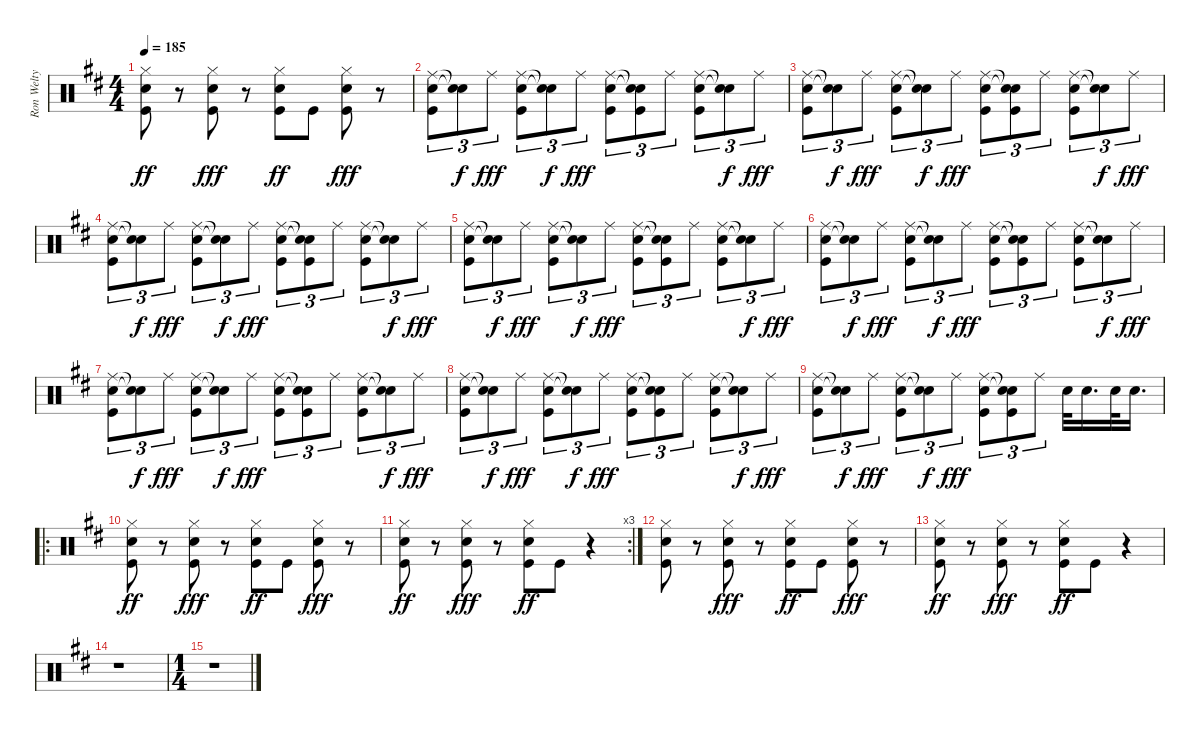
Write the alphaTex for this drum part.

\track ("Ron Welty" "Ron Welty") {instrument percussion}
\staff {score}
\articulation defaults
\ts (4 4)
\tempo 185
\clef neutral
\ks d
("Hi-Hat (closed)" "Snare (hit) 2" "Kick (hit)").8{dy ff} r.8 ("Hi-Hat (closed)" "Snare (hit) 2" "Kick (hit)").8{dy fff} r.8 ("Hi-Hat (closed)" "Snare (hit) 2" "Kick (hit)").8{dy ff} "Kick (hit)".8 ("Hi-Hat (closed)" "Snare (hit) 2" "Kick (hit)").8{dy fff} r.8 |
("Ride (middle)" "Snare (hit) 2" "Kick (hit)").8{tu (3 2)} ("Snare (hit)"{t} "Snare (hit)"{t}).8{tu (3 2) dy f} "Ride (middle)".8{tu (3 2) dy fff} ("Ride (middle)" "Snare (hit) 2" "Kick (hit)").8{tu (3 2)} ("Snare (hit)"{t} "Snare (hit)"{t}).8{tu (3 2) dy f} "Ride (middle)".8{tu (3 2) dy fff} ("Ride (middle)" "Snare (hit) 2" "Kick (hit)").8{tu (3 2)} ("Snare (hit)"{t} "Snare (hit)"{t} "Kick (hit)").8{tu (3 2)} "Ride (middle)".8{tu (3 2)} ("Ride (middle)" "Snare (hit) 2" "Kick (hit)").8{tu (3 2)} ("Snare (hit)"{t} "Snare (hit)"{t}).8{tu (3 2) dy f} "Ride (middle)".8{tu (3 2) dy fff} |
("Ride (middle)" "Snare (hit) 2" "Kick (hit)").8{tu (3 2)} ("Snare (hit)"{t} "Snare (hit)"{t}).8{tu (3 2) dy f} "Ride (middle)".8{tu (3 2) dy fff} ("Ride (middle)" "Snare (hit) 2" "Kick (hit)").8{tu (3 2)} ("Snare (hit)"{t} "Snare (hit)"{t}).8{tu (3 2) dy f} "Ride (middle)".8{tu (3 2) dy fff} ("Ride (middle)" "Snare (hit) 2" "Kick (hit)").8{tu (3 2)} ("Snare (hit)"{t} "Snare (hit)"{t} "Kick (hit)").8{tu (3 2)} "Ride (middle)".8{tu (3 2)} ("Ride (middle)" "Snare (hit) 2" "Kick (hit)").8{tu (3 2)} ("Snare (hit)"{t} "Snare (hit)"{t}).8{tu (3 2) dy f} "Ride (middle)".8{tu (3 2) dy fff} |
("Ride (middle)" "Snare (hit) 2" "Kick (hit)").8{tu (3 2)} ("Snare (hit)"{t} "Snare (hit)"{t}).8{tu (3 2) dy f} "Ride (middle)".8{tu (3 2) dy fff} ("Ride (middle)" "Snare (hit) 2" "Kick (hit)").8{tu (3 2)} ("Snare (hit)"{t} "Snare (hit)"{t}).8{tu (3 2) dy f} "Ride (middle)".8{tu (3 2) dy fff} ("Ride (middle)" "Snare (hit) 2" "Kick (hit)").8{tu (3 2)} ("Snare (hit)"{t} "Snare (hit)"{t} "Kick (hit)").8{tu (3 2)} "Ride (middle)".8{tu (3 2)} ("Ride (middle)" "Snare (hit) 2" "Kick (hit)").8{tu (3 2)} ("Snare (hit)"{t} "Snare (hit)"{t}).8{tu (3 2) dy f} "Ride (middle)".8{tu (3 2) dy fff} |
("Ride (middle)" "Snare (hit) 2" "Kick (hit)").8{tu (3 2)} ("Snare (hit)"{t} "Snare (hit)"{t}).8{tu (3 2) dy f} "Ride (middle)".8{tu (3 2) dy fff} ("Ride (middle)" "Snare (hit) 2" "Kick (hit)").8{tu (3 2)} ("Snare (hit)"{t} "Snare (hit)"{t}).8{tu (3 2) dy f} "Ride (middle)".8{tu (3 2) dy fff} ("Ride (middle)" "Snare (hit) 2" "Kick (hit)").8{tu (3 2)} ("Snare (hit)"{t} "Snare (hit)"{t} "Kick (hit)").8{tu (3 2)} "Ride (middle)".8{tu (3 2)} ("Ride (middle)" "Snare (hit) 2" "Kick (hit)").8{tu (3 2)} ("Snare (hit)"{t} "Snare (hit)"{t}).8{tu (3 2) dy f} "Ride (middle)".8{tu (3 2) dy fff} |
("Ride (middle)" "Snare (hit) 2" "Kick (hit)").8{tu (3 2)} ("Snare (hit)"{t} "Snare (hit)"{t}).8{tu (3 2) dy f} "Ride (middle)".8{tu (3 2) dy fff} ("Ride (middle)" "Snare (hit) 2" "Kick (hit)").8{tu (3 2)} ("Snare (hit)"{t} "Snare (hit)"{t}).8{tu (3 2) dy f} "Ride (middle)".8{tu (3 2) dy fff} ("Ride (middle)" "Snare (hit) 2" "Kick (hit)").8{tu (3 2)} ("Snare (hit)"{t} "Snare (hit)"{t} "Kick (hit)").8{tu (3 2)} "Ride (middle)".8{tu (3 2)} ("Ride (middle)" "Snare (hit) 2" "Kick (hit)").8{tu (3 2)} ("Snare (hit)"{t} "Snare (hit)"{t}).8{tu (3 2) dy f} "Ride (middle)".8{tu (3 2) dy fff} |
("Ride (middle)" "Snare (hit) 2" "Kick (hit)").8{tu (3 2)} ("Snare (hit)"{t} "Snare (hit)"{t}).8{tu (3 2) dy f} "Ride (middle)".8{tu (3 2) dy fff} ("Ride (middle)" "Snare (hit) 2" "Kick (hit)").8{tu (3 2)} ("Snare (hit)"{t} "Snare (hit)"{t}).8{tu (3 2) dy f} "Ride (middle)".8{tu (3 2) dy fff} ("Ride (middle)" "Snare (hit) 2" "Kick (hit)").8{tu (3 2)} ("Snare (hit)"{t} "Snare (hit)"{t} "Kick (hit)").8{tu (3 2)} "Ride (middle)".8{tu (3 2)} ("Ride (middle)" "Snare (hit) 2" "Kick (hit)").8{tu (3 2)} ("Snare (hit)"{t} "Snare (hit)"{t}).8{tu (3 2) dy f} "Ride (middle)".8{tu (3 2) dy fff} |
("Ride (middle)" "Snare (hit) 2" "Kick (hit)").8{tu (3 2)} ("Snare (hit)"{t} "Snare (hit)"{t}).8{tu (3 2) dy f} "Ride (middle)".8{tu (3 2) dy fff} ("Ride (middle)" "Snare (hit) 2" "Kick (hit)").8{tu (3 2)} ("Snare (hit)"{t} "Snare (hit)"{t}).8{tu (3 2) dy f} "Ride (middle)".8{tu (3 2) dy fff} ("Ride (middle)" "Snare (hit) 2" "Kick (hit)").8{tu (3 2)} ("Snare (hit)"{t} "Snare (hit)"{t} "Kick (hit)").8{tu (3 2)} "Ride (middle)".8{tu (3 2)} ("Ride (middle)" "Snare (hit) 2" "Kick (hit)").8{tu (3 2)} ("Snare (hit)"{t} "Snare (hit)"{t}).8{tu (3 2) dy f} "Ride (middle)".8{tu (3 2) dy fff} |
("Ride (middle)" "Snare (hit) 2" "Kick (hit)").8{tu (3 2)} ("Snare (hit)"{t} "Snare (hit)"{t}).8{tu (3 2) dy f} "Ride (middle)".8{tu (3 2) dy fff} ("Ride (middle)" "Snare (hit) 2" "Kick (hit)").8{tu (3 2)} ("Snare (hit)"{t} "Snare (hit)"{t}).8{tu (3 2) dy f} "Ride (middle)".8{tu (3 2) dy fff} ("Ride (middle)" "Snare (hit) 2" "Kick (hit)").8{tu (3 2)} ("Snare (hit)"{t} "Snare (hit)"{t} "Kick (hit)").8{tu (3 2)} "Ride (middle)".8{tu (3 2)} "Snare (hit) 2".32 "Snare (hit) 2".16{d} "Snare (hit) 2".32 "Snare (hit) 2".16{d} |
\ro
("Hi-Hat (closed)" "Snare (hit) 2" "Kick (hit)").8{dy ff} r.8 ("Hi-Hat (closed)" "Snare (hit) 2" "Kick (hit)").8{dy fff} r.8 ("Hi-Hat (closed)" "Snare (hit) 2" "Kick (hit)").8{dy ff} "Kick (hit)".8 ("Hi-Hat (closed)" "Snare (hit) 2" "Kick (hit)").8{dy fff} r.8 |
\rc 3
("Hi-Hat (closed)" "Snare (hit) 2" "Kick (hit)").8{dy ff} r.8 ("Hi-Hat (closed)" "Snare (hit) 2" "Kick (hit)").8{dy fff} r.8 ("Hi-Hat (closed)" "Snare (hit) 2" "Kick (hit)").8{dy ff} "Kick (hit)".8 r.4 |
("Hi-Hat (closed)" "Snare (hit) 2" "Kick (hit)").8 r.8 ("Hi-Hat (closed)" "Snare (hit) 2" "Kick (hit)").8{dy fff} r.8 ("Hi-Hat (closed)" "Snare (hit) 2" "Kick (hit)").8{dy ff} "Kick (hit)".8 ("Hi-Hat (closed)" "Snare (hit) 2" "Kick (hit)").8{dy fff} r.8 |
("Hi-Hat (closed)" "Snare (hit) 2" "Kick (hit)").8{dy ff} r.8 ("Hi-Hat (closed)" "Snare (hit) 2" "Kick (hit)").8{dy fff} r.8 ("Hi-Hat (closed)" "Snare (hit) 2" "Kick (hit)").8{dy ff} "Kick (hit)".8 r.4 |
r.1 |
\ts (1 4)
r.1
